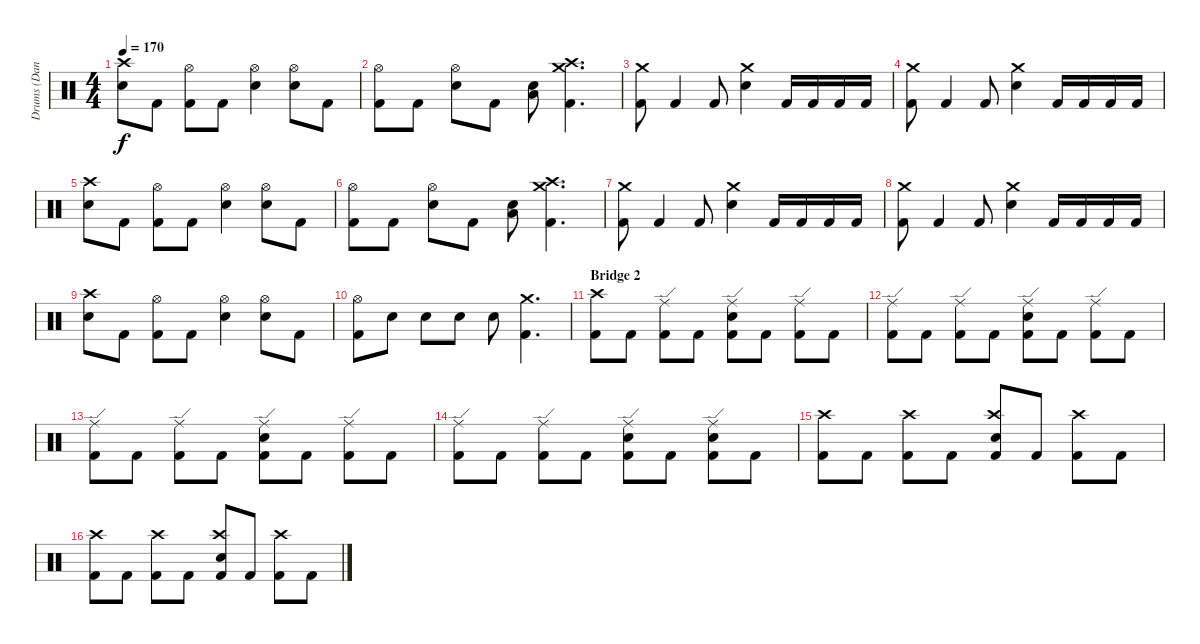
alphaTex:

\track ("Drums (Dan Trapp)" "Drums (Dan") {instrument percussion}
\staff {score}
\articulation defaults
\ts (4 4)
\tempo 170
\clef neutral
\ks c
("Snare (hit) 2" "Crash high (hit)").8{dy f} "Kick (hit) 2".8 ("Hi-Hat (open)" "Kick (hit) 2").8 "Kick (hit) 2".8 ("Snare (hit) 2" "Hi-Hat (open)").4 ("Snare (hit) 2" "Hi-Hat (open)").8 "Kick (hit) 2".8 |
("Kick (hit) 2" "Hi-Hat (open)").8 "Kick (hit) 2".8 ("Snare (hit) 2" "Hi-Hat (open)").8 "Kick (hit) 2".8 ("Snare (hit) 2" "Low Tom (hit)").8 ("Kick (hit) 2" "Crash high (hit)" "Crash medium (hit)").4{d} |
("Kick (hit) 2" "Crash medium (hit)").8 "Kick (hit) 2".4 "Kick (hit) 2".8 ("Snare (hit) 2" "Crash medium (hit)").4 "Kick (hit) 2".16 "Kick (hit) 2".16 "Kick (hit) 2".16 "Kick (hit) 2".16 |
("Kick (hit) 2" "Crash medium (hit)").8 "Kick (hit) 2".4 "Kick (hit) 2".8 ("Snare (hit) 2" "Crash medium (hit)").4 "Kick (hit) 2".16 "Kick (hit) 2".16 "Kick (hit) 2".16 "Kick (hit) 2".16 |
("Snare (hit) 2" "Crash high (hit)").8 "Kick (hit) 2".8 ("Hi-Hat (open)" "Kick (hit) 2").8 "Kick (hit) 2".8 ("Snare (hit) 2" "Hi-Hat (open)").4 ("Snare (hit) 2" "Hi-Hat (open)").8 "Kick (hit) 2".8 |
("Kick (hit) 2" "Hi-Hat (open)").8 "Kick (hit) 2".8 ("Snare (hit) 2" "Hi-Hat (open)").8 "Kick (hit) 2".8 ("Snare (hit) 2" "Low Tom (hit)").8 ("Kick (hit) 2" "Crash high (hit)" "Crash medium (hit)").4{d} |
("Kick (hit) 2" "Crash medium (hit)").8 "Kick (hit) 2".4 "Kick (hit) 2".8 ("Snare (hit) 2" "Crash medium (hit)").4 "Kick (hit) 2".16 "Kick (hit) 2".16 "Kick (hit) 2".16 "Kick (hit) 2".16 |
("Kick (hit) 2" "Crash medium (hit)").8 "Kick (hit) 2".4 "Kick (hit) 2".8 ("Snare (hit) 2" "Crash medium (hit)").4 "Kick (hit) 2".16 "Kick (hit) 2".16 "Kick (hit) 2".16 "Kick (hit) 2".16 |
("Snare (hit) 2" "Crash high (hit)").8 "Kick (hit) 2".8 ("Hi-Hat (open)" "Kick (hit) 2").8 "Kick (hit) 2".8 ("Snare (hit) 2" "Hi-Hat (open)").4 ("Snare (hit) 2" "Hi-Hat (open)").8 "Kick (hit) 2".8 |
("Kick (hit) 2" "Hi-Hat (open)").8 "Snare (hit) 2".8 "Snare (hit) 2".8 "Snare (hit) 2".8 "Snare (hit) 2".8 ("Kick (hit) 2" "Crash medium (hit)").4{d} |
\section ("" "Bridge 2")
("Kick (hit) 2" "Crash high (hit)").8 "Kick (hit) 2".8 ("Kick (hit) 2" "Ride (edge)").8 "Kick (hit) 2".8 ("Kick (hit) 2" "Ride (edge)" "Snare (hit) 2").8 "Kick (hit) 2".8 ("Kick (hit) 2" "Ride (edge)").8 "Kick (hit) 2".8 |
("Kick (hit) 2" "Ride (edge)").8 "Kick (hit) 2".8 ("Kick (hit) 2" "Ride (edge)").8 "Kick (hit) 2".8 ("Kick (hit) 2" "Ride (edge)" "Snare (hit) 2").8 "Kick (hit) 2".8 ("Kick (hit) 2" "Ride (edge)").8 "Kick (hit) 2".8 |
("Kick (hit) 2" "Ride (edge)").8 "Kick (hit) 2".8 ("Kick (hit) 2" "Ride (edge)").8 "Kick (hit) 2".8 ("Kick (hit) 2" "Ride (edge)" "Snare (hit) 2").8 "Kick (hit) 2".8 ("Kick (hit) 2" "Ride (edge)").8 "Kick (hit) 2".8 |
("Kick (hit) 2" "Ride (edge)").8 "Kick (hit) 2".8 ("Kick (hit) 2" "Ride (edge)").8 "Kick (hit) 2".8 ("Kick (hit) 2" "Ride (edge)" "Snare (hit) 2").8 "Kick (hit) 2".8 ("Kick (hit) 2" "Ride (edge)" "Snare (hit) 2").8 "Kick (hit) 2".8 |
("Kick (hit) 2" "Crash high (hit)").8 "Kick (hit) 2".8 ("Kick (hit) 2" "Crash high (hit)").8 "Kick (hit) 2".8 ("Kick (hit) 2" "Snare (hit) 2" "Crash high (hit)").8 "Kick (hit) 2".8 ("Kick (hit) 2" "Crash high (hit)").8 "Kick (hit) 2".8 |
("Kick (hit) 2" "Crash high (hit)").8 "Kick (hit) 2".8 ("Kick (hit) 2" "Crash high (hit)").8 "Kick (hit) 2".8 ("Kick (hit) 2" "Snare (hit) 2" "Crash high (hit)").8 "Kick (hit) 2".8 ("Kick (hit) 2" "Crash high (hit)").8 "Kick (hit) 2".8
